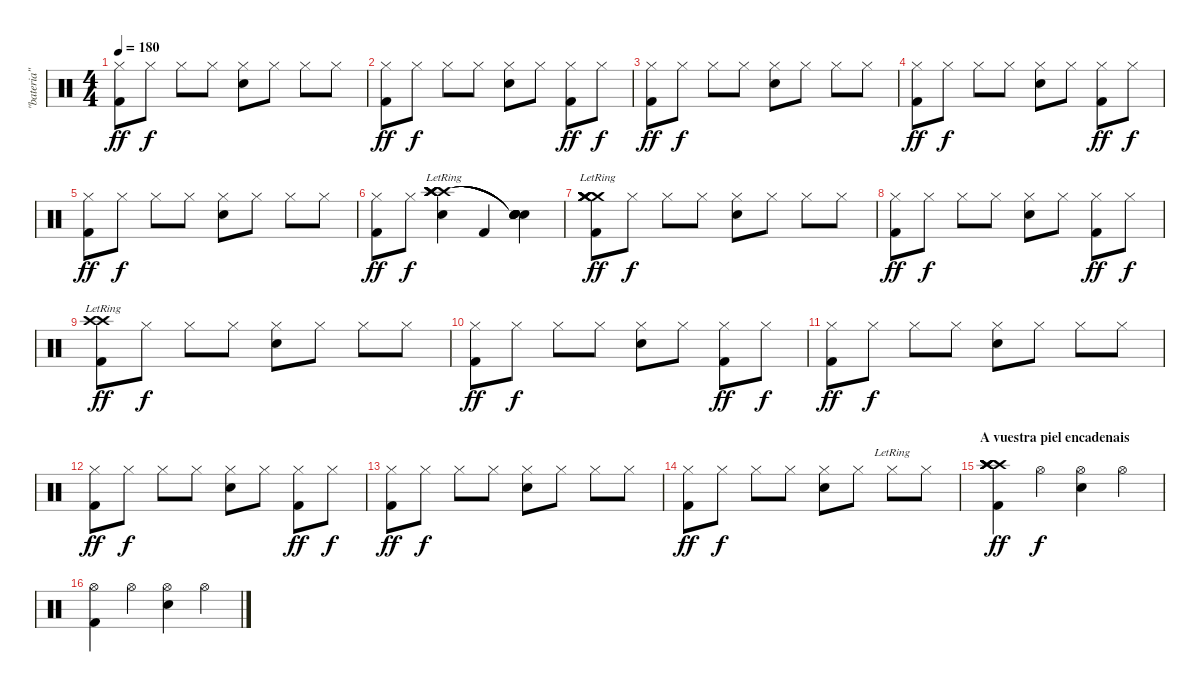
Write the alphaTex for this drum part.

\track ("\"bateria\"" "\"bateria\"") {instrument percussion}
\staff {score}
\articulation defaults
\ts (4 4)
\tempo 180
\clef neutral
\ks c
("Kick (hit) 2" "Hi-Hat (closed)").8{dy ff} "Hi-Hat (closed)".8{dy f} "Hi-Hat (closed)".8 "Hi-Hat (closed)".8 ("Electric Snare (hit)" "Hi-Hat (closed)").8 "Hi-Hat (closed)".8 "Hi-Hat (closed)".8 "Hi-Hat (closed)".8 |
("Kick (hit) 2" "Hi-Hat (closed)").8{dy ff} "Hi-Hat (closed)".8{dy f} "Hi-Hat (closed)".8 "Hi-Hat (closed)".8 ("Electric Snare (hit)" "Hi-Hat (closed)").8 "Hi-Hat (closed)".8 ("Kick (hit) 2" "Hi-Hat (closed)").8{dy ff} "Hi-Hat (closed)".8{dy f} |
("Kick (hit) 2" "Hi-Hat (closed)").8{dy ff} "Hi-Hat (closed)".8{dy f} "Hi-Hat (closed)".8 "Hi-Hat (closed)".8 ("Electric Snare (hit)" "Hi-Hat (closed)").8 "Hi-Hat (closed)".8 "Hi-Hat (closed)".8 "Hi-Hat (closed)".8 |
("Kick (hit) 2" "Hi-Hat (closed)").8{dy ff} "Hi-Hat (closed)".8{dy f} "Hi-Hat (closed)".8 "Hi-Hat (closed)".8 ("Electric Snare (hit)" "Hi-Hat (closed)").8 "Hi-Hat (closed)".8 ("Kick (hit) 2" "Hi-Hat (closed)").8{dy ff} "Hi-Hat (closed)".8{dy f} |
("Kick (hit) 2" "Hi-Hat (closed)").8{dy ff} "Hi-Hat (closed)".8{dy f} "Hi-Hat (closed)".8 "Hi-Hat (closed)".8 ("Electric Snare (hit)" "Hi-Hat (closed)").8 "Hi-Hat (closed)".8 "Hi-Hat (closed)".8 "Hi-Hat (closed)".8 |
("Kick (hit) 2" "Hi-Hat (closed)").8{dy ff} "Hi-Hat (closed)".8{dy f} ("Electric Snare (hit)" "Crash high (hit)"{lr} "Crash high (hit)"{lr} "Crash high (hit)"{lr} "Crash high (hit)"{lr} "Crash high (hit)"{lr}).4 "Kick (hit) 2".4 ("Electric Snare (hit)" "Snare (hit)"{t} "Snare (hit)"{t} "Snare (hit)"{t} "Snare (hit)"{t} "Snare (hit)"{t}).4 |
("Kick (hit) 2" "Crash medium (hit)"{lr} "Crash medium (hit)"{lr} "Crash medium (hit)"{lr} "Crash medium (hit)"{lr} "Crash medium (hit)"{lr}).8{dy ff} "Hi-Hat (closed)".8{dy f} "Hi-Hat (closed)".8 "Hi-Hat (closed)".8 ("Electric Snare (hit)" "Hi-Hat (closed)").8 "Hi-Hat (closed)".8 "Hi-Hat (closed)".8 "Hi-Hat (closed)".8 |
("Kick (hit) 2" "Hi-Hat (closed)").8{dy ff} "Hi-Hat (closed)".8{dy f} "Hi-Hat (closed)".8 "Hi-Hat (closed)".8 ("Electric Snare (hit)" "Hi-Hat (closed)").8 "Hi-Hat (closed)".8 ("Kick (hit) 2" "Hi-Hat (closed)").8{dy ff} "Hi-Hat (closed)".8{dy f} |
("Kick (hit) 2" "Crash high (hit)" "Crash high (hit)"{lr}).8{dy ff} "Hi-Hat (closed)".8{dy f} "Hi-Hat (closed)".8 "Hi-Hat (closed)".8 ("Electric Snare (hit)" "Hi-Hat (closed)").8 "Hi-Hat (closed)".8 "Hi-Hat (closed)".8 "Hi-Hat (closed)".8 |
("Kick (hit) 2" "Hi-Hat (closed)").8{dy ff} "Hi-Hat (closed)".8{dy f} "Hi-Hat (closed)".8 "Hi-Hat (closed)".8 ("Electric Snare (hit)" "Hi-Hat (closed)").8 "Hi-Hat (closed)".8 ("Kick (hit) 2" "Hi-Hat (closed)").8{dy ff} "Hi-Hat (closed)".8{dy f} |
("Kick (hit) 2" "Hi-Hat (closed)").8{dy ff} "Hi-Hat (closed)".8{dy f} "Hi-Hat (closed)".8 "Hi-Hat (closed)".8 ("Electric Snare (hit)" "Hi-Hat (closed)").8 "Hi-Hat (closed)".8 "Hi-Hat (closed)".8 "Hi-Hat (closed)".8 |
("Kick (hit) 2" "Hi-Hat (closed)").8{dy ff} "Hi-Hat (closed)".8{dy f} "Hi-Hat (closed)".8 "Hi-Hat (closed)".8 ("Electric Snare (hit)" "Hi-Hat (closed)").8 "Hi-Hat (closed)".8 ("Kick (hit) 2" "Hi-Hat (closed)").8{dy ff} "Hi-Hat (closed)".8{dy f} |
("Kick (hit) 2" "Hi-Hat (closed)").8{dy ff} "Hi-Hat (closed)".8{dy f} "Hi-Hat (closed)".8 "Hi-Hat (closed)".8 ("Electric Snare (hit)" "Hi-Hat (closed)").8 "Hi-Hat (closed)".8 "Hi-Hat (closed)".8 "Hi-Hat (closed)".8 |
\section ("" "")
("Kick (hit) 2" "Hi-Hat (closed)").8{dy ff} "Hi-Hat (closed)".8{dy f} "Hi-Hat (closed)".8 "Hi-Hat (closed)".8 ("Electric Snare (hit)" "Hi-Hat (closed)").8 "Hi-Hat (closed)".8 "Hi-Hat (closed)"{lr}.8 "Hi-Hat (closed)".8 |
\section ("" "A vuestra piel encadenais")
("Kick (hit) 2" "Crash high (hit)" "Crash high (hit)" "Crash high (hit)" "Crash high (hit)" "Crash high (hit)").4{dy ff} "Hi-Hat (open)".4{dy f} ("Hi-Hat (open)" "Electric Snare (hit)").4 "Hi-Hat (open)".4 |
("Hi-Hat (open)" "Kick (hit) 2").4 "Hi-Hat (open)".4 ("Hi-Hat (open)" "Electric Snare (hit)").4 "Hi-Hat (open)".4
